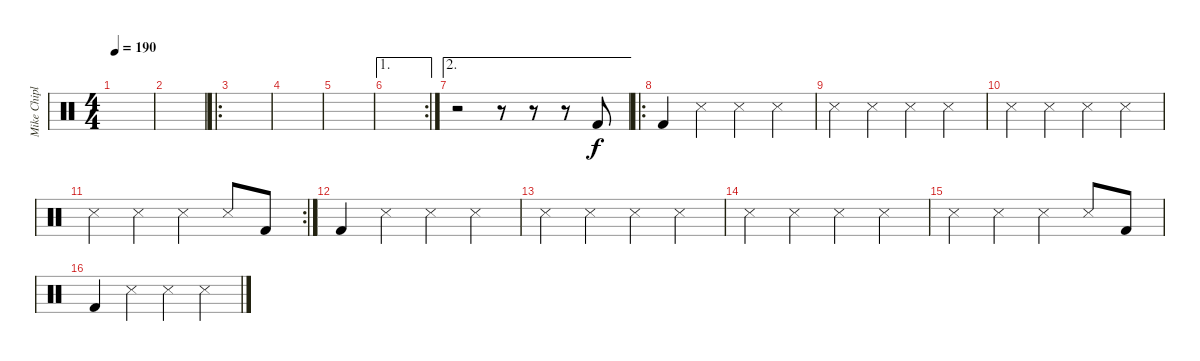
\track ("Mike Chiplin" "Mike Chipl") {instrument percussion}
\staff {score}
\articulation defaults
\ts (4 4)
\tempo 190
\clef neutral
\ks c
|
|
\ro
|
|
|
\ae 1
\rc 2
|
\ae 2
r.2 r.8 r.8 r.8 "Kick (hit) 2".8 |
\ro "Kick (hit) 2".4 "Snare (side stick) 3".4 "Snare (side stick) 3".4 "Snare (side stick) 3".4
|
"Snare (side stick) 3".4 "Snare (side stick) 3".4 "Snare (side stick) 3".4 "Snare (side stick) 3".4 |
"Snare (side stick) 3".4 "Snare (side stick) 3".4 "Snare (side stick) 3".4 "Snare (side stick) 3".4 |
\rc 2 "Snare (side stick) 3".4 "Snare (side stick) 3".4 "Snare (side stick) 3".4 "Snare (side stick) 3".8 "Kick (hit) 2".8
|
"Kick (hit) 2".4 "Snare (side stick) 3".4 "Snare (side stick) 3".4 "Snare (side stick) 3".4 |
"Snare (side stick) 3".4 "Snare (side stick) 3".4 "Snare (side stick) 3".4 "Snare (side stick) 3".4 |
"Snare (side stick) 3".4 "Snare (side stick) 3".4 "Snare (side stick) 3".4 "Snare (side stick) 3".4 |
"Snare (side stick) 3".4 "Snare (side stick) 3".4 "Snare (side stick) 3".4 "Snare (side stick) 3".8 "Kick (hit) 2".8 |
"Kick (hit) 2".4 "Snare (side stick) 3".4 "Snare (side stick) 3".4 "Snare (side stick) 3".4
